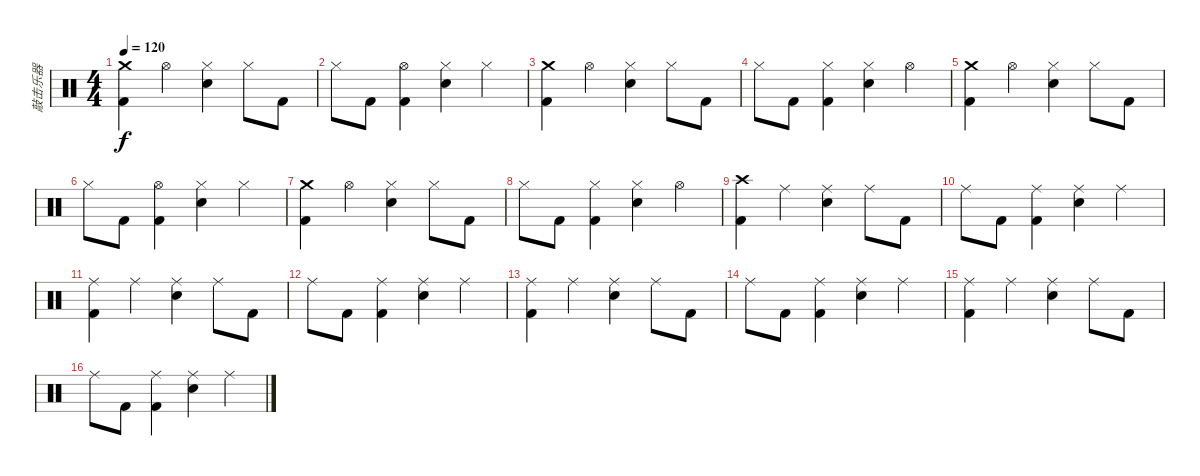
\track ("敲击乐器" "敲击乐器") {instrument percussion}
\staff {score}
\articulation defaults
\ts (4 4)
\tempo 120
\clef neutral
\ks c
("Kick (hit) 2" "Crash medium (hit)").4{dy f} "Hi-Hat (open)".4 ("Snare (hit) 2" "Hi-Hat (closed)").4 "Hi-Hat (closed)".8 "Kick (hit) 2".8 |
"Hi-Hat (closed)".8 "Kick (hit) 2".8 ("Kick (hit) 2" "Hi-Hat (open)").4 ("Snare (hit) 2" "Hi-Hat (closed)").4 "Hi-Hat (closed)".4 |
("Kick (hit) 2" "Crash medium (hit)").4 "Hi-Hat (open)".4 ("Snare (hit) 2" "Hi-Hat (closed)").4 "Hi-Hat (closed)".8 "Kick (hit) 2".8 |
"Hi-Hat (closed)".8 "Kick (hit) 2".8 ("Kick (hit) 2" "Hi-Hat (closed)").4 ("Snare (hit) 2" "Hi-Hat (closed)").4 "Hi-Hat (open)".4 |
("Kick (hit) 2" "Crash medium (hit)").4 "Hi-Hat (open)".4 ("Snare (hit) 2" "Hi-Hat (closed)").4 "Hi-Hat (closed)".8 "Kick (hit) 2".8 |
"Hi-Hat (closed)".8 "Kick (hit) 2".8 ("Kick (hit) 2" "Hi-Hat (open)").4 ("Snare (hit) 2" "Hi-Hat (closed)").4 "Hi-Hat (closed)".4 |
("Kick (hit) 2" "Crash medium (hit)").4 "Hi-Hat (open)".4 ("Snare (hit) 2" "Hi-Hat (closed)").4 "Hi-Hat (closed)".8 "Kick (hit) 2".8 |
"Hi-Hat (closed)".8 "Kick (hit) 2".8 ("Kick (hit) 2" "Hi-Hat (closed)").4 ("Snare (hit) 2" "Hi-Hat (closed)").4 "Hi-Hat (open)".4 |
("Kick (hit) 2" "Crash high (hit)").4 "Ride (middle)".4 ("Snare (hit) 2" "Ride (middle)").4 "Ride (middle)".8 "Kick (hit) 2".8 |
"Ride (middle)".8 "Kick (hit) 2".8 ("Kick (hit) 2" "Ride (middle)").4 ("Snare (hit) 2" "Ride (middle)").4 "Ride (middle)".4 |
("Kick (hit) 2" "Ride (middle)").4 "Ride (middle)".4 ("Snare (hit) 2" "Ride (middle)").4 "Ride (middle)".8 "Kick (hit) 2".8 |
"Ride (middle)".8 "Kick (hit) 2".8 ("Kick (hit) 2" "Ride (middle)").4 ("Snare (hit) 2" "Ride (middle)").4 "Ride (middle)".4 |
("Kick (hit) 2" "Ride (middle)").4 "Ride (middle)".4 ("Snare (hit) 2" "Ride (middle)").4 "Ride (middle)".8 "Kick (hit) 2".8 |
"Ride (middle)".8 "Kick (hit) 2".8 ("Kick (hit) 2" "Ride (middle)").4 ("Snare (hit) 2" "Ride (middle)").4 "Ride (middle)".4 |
("Kick (hit) 2" "Ride (middle)").4 "Ride (middle)".4 ("Snare (hit) 2" "Ride (middle)").4 "Ride (middle)".8 "Kick (hit) 2".8 |
"Ride (middle)".8 "Kick (hit) 2".8 ("Kick (hit) 2" "Ride (middle)").4 ("Snare (hit) 2" "Ride (middle)").4 "Ride (middle)".4
